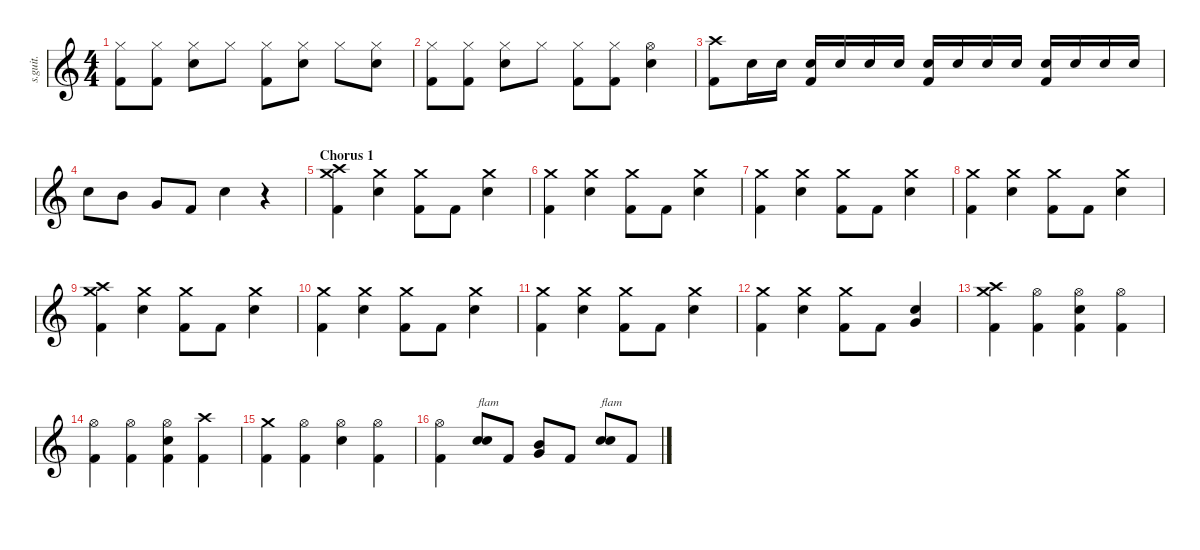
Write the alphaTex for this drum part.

\defaultSystemsLayout 4
\hideDynamics
\bracketExtendMode nobrackets
\track ("Zac Farro | Drums" "s.guit.") {instrument percussion}
\staff {score}
\articulation defaults
\ts (4 4)
\tempo (173 hide)
\clef g2
\ks c
("Hi-Hat (closed)" "Kick (hit) 2").8{lyrics (0 "") lyrics (1 "") lyrics (2 "") lyrics (3 "") lyrics (4 "") dy f} ("Hi-Hat (closed)" "Kick (hit) 2").8{lyrics (0 "") lyrics (1 "") lyrics (2 "") lyrics (3 "") lyrics (4 "")} ("Hi-Hat (closed)" "Electric Snare (hit)").8{lyrics (0 "") lyrics (1 "") lyrics (2 "") lyrics (3 "") lyrics (4 "")} "Hi-Hat (closed)".8{lyrics (0 "") lyrics (1 "") lyrics (2 "") lyrics (3 "") lyrics (4 "")} ("Hi-Hat (closed)" "Kick (hit) 2").8{lyrics (0 "") lyrics (1 "") lyrics (2 "") lyrics (3 "") lyrics (4 "")} ("Hi-Hat (closed)" "Electric Snare (hit)").8{lyrics (0 "") lyrics (1 "") lyrics (2 "") lyrics (3 "") lyrics (4 "")} "Hi-Hat (closed)".8{lyrics (0 "") lyrics (1 "") lyrics (2 "") lyrics (3 "") lyrics (4 "")} ("Hi-Hat (closed)" "Electric Snare (hit)").8{lyrics (0 "") lyrics (1 "") lyrics (2 "") lyrics (3 "") lyrics (4 "")} |
("Hi-Hat (closed)" "Kick (hit) 2").8{lyrics (0 "") lyrics (1 "") lyrics (2 "") lyrics (3 "") lyrics (4 "")} ("Hi-Hat (closed)" "Kick (hit) 2").8{lyrics (0 "") lyrics (1 "") lyrics (2 "") lyrics (3 "") lyrics (4 "")} ("Hi-Hat (closed)" "Electric Snare (hit)").8{lyrics (0 "") lyrics (1 "") lyrics (2 "") lyrics (3 "") lyrics (4 "")} "Hi-Hat (closed)".8{lyrics (0 "") lyrics (1 "") lyrics (2 "") lyrics (3 "") lyrics (4 "")} ("Hi-Hat (closed)" "Kick (hit) 2").8{lyrics (0 "") lyrics (1 "") lyrics (2 "") lyrics (3 "") lyrics (4 "")} ("Hi-Hat (closed)" "Kick (hit) 2").8{lyrics (0 "") lyrics (1 "") lyrics (2 "") lyrics (3 "") lyrics (4 "")} ("Hi-Hat (open)" "Electric Snare (hit)").4{lyrics (0 "") lyrics (1 "") lyrics (2 "") lyrics (3 "") lyrics (4 "")} |
("Crash high (hit)" "Kick (hit) 2").8{lyrics (0 "") lyrics (1 "") lyrics (2 "") lyrics (3 "") lyrics (4 "")} "Electric Snare (hit)".16{lyrics (0 "") lyrics (1 "") lyrics (2 "") lyrics (3 "") lyrics (4 "") dy pp} "Electric Snare (hit)".16{lyrics (0 "") lyrics (1 "") lyrics (2 "") lyrics (3 "") lyrics (4 "")} ("Electric Snare (hit)" "Kick (hit) 2").16{lyrics (0 "") lyrics (1 "") lyrics (2 "") lyrics (3 "") lyrics (4 "") dy f} "Electric Snare (hit)".16{lyrics (0 "") lyrics (1 "") lyrics (2 "") lyrics (3 "") lyrics (4 "") dy pp} "Electric Snare (hit)".16{lyrics (0 "") lyrics (1 "") lyrics (2 "") lyrics (3 "") lyrics (4 "")} "Electric Snare (hit)".16{lyrics (0 "") lyrics (1 "") lyrics (2 "") lyrics (3 "") lyrics (4 "")} ("Electric Snare (hit)" "Kick (hit) 2").16{lyrics (0 "") lyrics (1 "") lyrics (2 "") lyrics (3 "") lyrics (4 "") dy f} "Electric Snare (hit)".16{lyrics (0 "") lyrics (1 "") lyrics (2 "") lyrics (3 "") lyrics (4 "") dy p} "Electric Snare (hit)".16{lyrics (0 "") lyrics (1 "") lyrics (2 "") lyrics (3 "") lyrics (4 "")} "Electric Snare (hit)".16{lyrics (0 "") lyrics (1 "") lyrics (2 "") lyrics (3 "") lyrics (4 "")} ("Electric Snare (hit)" "Kick (hit) 2").16{lyrics (0 "") lyrics (1 "") lyrics (2 "") lyrics (3 "") lyrics (4 "") dy f} "Electric Snare (hit)".16{lyrics (0 "") lyrics (1 "") lyrics (2 "") lyrics (3 "") lyrics (4 "") dy mp} "Electric Snare (hit)".16{lyrics (0 "") lyrics (1 "") lyrics (2 "") lyrics (3 "") lyrics (4 "")} "Electric Snare (hit)".16{lyrics (0 "") lyrics (1 "") lyrics (2 "") lyrics (3 "") lyrics (4 "")} |
"Electric Snare (hit)".8{lyrics (0 "") lyrics (1 "") lyrics (2 "") lyrics (3 "") lyrics (4 "") dy f} "Mid Tom (hit)".8{lyrics (0 "") lyrics (1 "") lyrics (2 "") lyrics (3 "") lyrics (4 "")} "Very Low Tom (hit)".8{lyrics (0 "") lyrics (1 "") lyrics (2 "") lyrics (3 "") lyrics (4 "")} "Kick (hit) 2".8{lyrics (0 "") lyrics (1 "") lyrics (2 "") lyrics (3 "") lyrics (4 "")} "Electric Snare (hit)".4{lyrics (0 "") lyrics (1 "") lyrics (2 "") lyrics (3 "") lyrics (4 "")} r.4 |
\section ("" "Chorus 1")
("Crash high (hit)" "Crash medium (hit)" "Kick (hit) 2").4{lyrics (0 "") lyrics (1 "") lyrics (2 "") lyrics (3 "") lyrics (4 "")} ("Crash medium (hit)" "Electric Snare (hit)").4{lyrics (0 "") lyrics (1 "") lyrics (2 "") lyrics (3 "") lyrics (4 "")} ("Crash medium (hit)" "Kick (hit) 2").8{lyrics (0 "") lyrics (1 "") lyrics (2 "") lyrics (3 "") lyrics (4 "")} "Kick (hit) 2".8{lyrics (0 "") lyrics (1 "") lyrics (2 "") lyrics (3 "") lyrics (4 "")} ("Crash medium (hit)" "Electric Snare (hit)").4{lyrics (0 "") lyrics (1 "") lyrics (2 "") lyrics (3 "") lyrics (4 "")} |
("Crash medium (hit)" "Kick (hit) 2").4{lyrics (0 "") lyrics (1 "") lyrics (2 "") lyrics (3 "") lyrics (4 "")} ("Crash medium (hit)" "Electric Snare (hit)").4{lyrics (0 "") lyrics (1 "") lyrics (2 "") lyrics (3 "") lyrics (4 "")} ("Crash medium (hit)" "Kick (hit) 2").8{lyrics (0 "") lyrics (1 "") lyrics (2 "") lyrics (3 "") lyrics (4 "")} "Kick (hit) 2".8{lyrics (0 "") lyrics (1 "") lyrics (2 "") lyrics (3 "") lyrics (4 "")} ("Crash medium (hit)" "Electric Snare (hit)").4{lyrics (0 "") lyrics (1 "") lyrics (2 "") lyrics (3 "") lyrics (4 "")} |
("Crash medium (hit)" "Kick (hit) 2").4{lyrics (0 "") lyrics (1 "") lyrics (2 "") lyrics (3 "") lyrics (4 "")} ("Crash medium (hit)" "Electric Snare (hit)").4{lyrics (0 "") lyrics (1 "") lyrics (2 "") lyrics (3 "") lyrics (4 "")} ("Crash medium (hit)" "Kick (hit) 2").8{lyrics (0 "") lyrics (1 "") lyrics (2 "") lyrics (3 "") lyrics (4 "")} "Kick (hit) 2".8{lyrics (0 "") lyrics (1 "") lyrics (2 "") lyrics (3 "") lyrics (4 "")} ("Crash medium (hit)" "Electric Snare (hit)").4{lyrics (0 "") lyrics (1 "") lyrics (2 "") lyrics (3 "") lyrics (4 "")} |
("Crash medium (hit)" "Kick (hit) 2").4{lyrics (0 "") lyrics (1 "") lyrics (2 "") lyrics (3 "") lyrics (4 "")} ("Crash medium (hit)" "Electric Snare (hit)").4{lyrics (0 "") lyrics (1 "") lyrics (2 "") lyrics (3 "") lyrics (4 "")} ("Crash medium (hit)" "Kick (hit) 2").8{lyrics (0 "") lyrics (1 "") lyrics (2 "") lyrics (3 "") lyrics (4 "")} "Kick (hit) 2".8{lyrics (0 "") lyrics (1 "") lyrics (2 "") lyrics (3 "") lyrics (4 "")} ("Crash medium (hit)" "Electric Snare (hit)").4{lyrics (0 "") lyrics (1 "") lyrics (2 "") lyrics (3 "") lyrics (4 "")} |
("Crash high (hit)" "Crash medium (hit)" "Kick (hit) 2").4{lyrics (0 "") lyrics (1 "") lyrics (2 "") lyrics (3 "") lyrics (4 "")} ("Crash medium (hit)" "Electric Snare (hit)").4{lyrics (0 "") lyrics (1 "") lyrics (2 "") lyrics (3 "") lyrics (4 "")} ("Crash medium (hit)" "Kick (hit) 2").8{lyrics (0 "") lyrics (1 "") lyrics (2 "") lyrics (3 "") lyrics (4 "")} "Kick (hit) 2".8{lyrics (0 "") lyrics (1 "") lyrics (2 "") lyrics (3 "") lyrics (4 "")} ("Crash medium (hit)" "Electric Snare (hit)").4{lyrics (0 "") lyrics (1 "") lyrics (2 "") lyrics (3 "") lyrics (4 "")} |
("Crash medium (hit)" "Kick (hit) 2").4{lyrics (0 "") lyrics (1 "") lyrics (2 "") lyrics (3 "") lyrics (4 "")} ("Crash medium (hit)" "Electric Snare (hit)").4{lyrics (0 "") lyrics (1 "") lyrics (2 "") lyrics (3 "") lyrics (4 "")} ("Crash medium (hit)" "Kick (hit) 2").8{lyrics (0 "") lyrics (1 "") lyrics (2 "") lyrics (3 "") lyrics (4 "")} "Kick (hit) 2".8{lyrics (0 "") lyrics (1 "") lyrics (2 "") lyrics (3 "") lyrics (4 "")} ("Crash medium (hit)" "Electric Snare (hit)").4{lyrics (0 "") lyrics (1 "") lyrics (2 "") lyrics (3 "") lyrics (4 "")} |
("Crash medium (hit)" "Kick (hit) 2").4{lyrics (0 "") lyrics (1 "") lyrics (2 "") lyrics (3 "") lyrics (4 "")} ("Crash medium (hit)" "Electric Snare (hit)").4{lyrics (0 "") lyrics (1 "") lyrics (2 "") lyrics (3 "") lyrics (4 "")} ("Crash medium (hit)" "Kick (hit) 2").8{lyrics (0 "") lyrics (1 "") lyrics (2 "") lyrics (3 "") lyrics (4 "")} "Kick (hit) 2".8{lyrics (0 "") lyrics (1 "") lyrics (2 "") lyrics (3 "") lyrics (4 "")} ("Crash medium (hit)" "Electric Snare (hit)").4{lyrics (0 "") lyrics (1 "") lyrics (2 "") lyrics (3 "") lyrics (4 "")} |
("Crash medium (hit)" "Kick (hit) 2").4{lyrics (0 "") lyrics (1 "") lyrics (2 "") lyrics (3 "") lyrics (4 "")} ("Crash medium (hit)" "Electric Snare (hit)").4{lyrics (0 "") lyrics (1 "") lyrics (2 "") lyrics (3 "") lyrics (4 "")} ("Crash medium (hit)" "Kick (hit) 2").8{lyrics (0 "") lyrics (1 "") lyrics (2 "") lyrics (3 "") lyrics (4 "")} "Kick (hit) 2".8{lyrics (0 "") lyrics (1 "") lyrics (2 "") lyrics (3 "") lyrics (4 "")} ("Electric Snare (hit)" "Very Low Tom (hit)").4{lyrics (0 "") lyrics (1 "") lyrics (2 "") lyrics (3 "") lyrics (4 "")} |
("Crash high (hit)" "Crash medium (hit)" "Kick (hit) 2").4{lyrics (0 "") lyrics (1 "") lyrics (2 "") lyrics (3 "") lyrics (4 "")} ("Hi-Hat (open)" "Kick (hit) 2").4{lyrics (0 "") lyrics (1 "") lyrics (2 "") lyrics (3 "") lyrics (4 "")} ("Hi-Hat (open)" "Electric Snare (hit)" "Kick (hit) 2").4{lyrics (0 "") lyrics (1 "") lyrics (2 "") lyrics (3 "") lyrics (4 "")} ("Hi-Hat (open)" "Kick (hit) 2").4{lyrics (0 "") lyrics (1 "") lyrics (2 "") lyrics (3 "") lyrics (4 "")} |
("Hi-Hat (open)" "Kick (hit) 2").4{lyrics (0 "") lyrics (1 "") lyrics (2 "") lyrics (3 "") lyrics (4 "")} ("Hi-Hat (open)" "Kick (hit) 2").4{lyrics (0 "") lyrics (1 "") lyrics (2 "") lyrics (3 "") lyrics (4 "")} ("Hi-Hat (open)" "Electric Snare (hit)" "Kick (hit) 2").4{lyrics (0 "") lyrics (1 "") lyrics (2 "") lyrics (3 "") lyrics (4 "")} ("Crash high (hit)" "Kick (hit) 2").4{lyrics (0 "") lyrics (1 "") lyrics (2 "") lyrics (3 "") lyrics (4 "")} |
("Crash medium (hit)" "Kick (hit) 2").4{lyrics (0 "") lyrics (1 "") lyrics (2 "") lyrics (3 "") lyrics (4 "")} ("Hi-Hat (open)" "Kick (hit) 2").4{lyrics (0 "") lyrics (1 "") lyrics (2 "") lyrics (3 "") lyrics (4 "")} ("Hi-Hat (open)" "Electric Snare (hit)").4{lyrics (0 "") lyrics (1 "") lyrics (2 "") lyrics (3 "") lyrics (4 "")} ("Hi-Hat (open)" "Kick (hit) 2").4{lyrics (0 "") lyrics (1 "") lyrics (2 "") lyrics (3 "") lyrics (4 "")} |
("Hi-Hat (open)" "Kick (hit) 2").4{lyrics (0 "") lyrics (1 "") lyrics (2 "") lyrics (3 "") lyrics (4 "")} ("Electric Snare (hit)" "Electric Snare (hit)").8{bd 30 txt "flam" lyrics (0 "") lyrics (1 "") lyrics (2 "") lyrics (3 "") lyrics (4 "")} "Kick (hit) 2".8{lyrics (0 "") lyrics (1 "") lyrics (2 "") lyrics (3 "") lyrics (4 "")} ("Mid Tom (hit)" "Very Low Tom (hit)").8{lyrics (0 "") lyrics (1 "") lyrics (2 "") lyrics (3 "") lyrics (4 "")} "Kick (hit) 2".8{lyrics (0 "") lyrics (1 "") lyrics (2 "") lyrics (3 "") lyrics (4 "")} ("Electric Snare (hit)" "Electric Snare (hit)").8{bd 30 txt "flam" lyrics (0 "") lyrics (1 "") lyrics (2 "") lyrics (3 "") lyrics (4 "")} "Kick (hit) 2".8{lyrics (0 "") lyrics (1 "") lyrics (2 "") lyrics (3 "") lyrics (4 "")}
